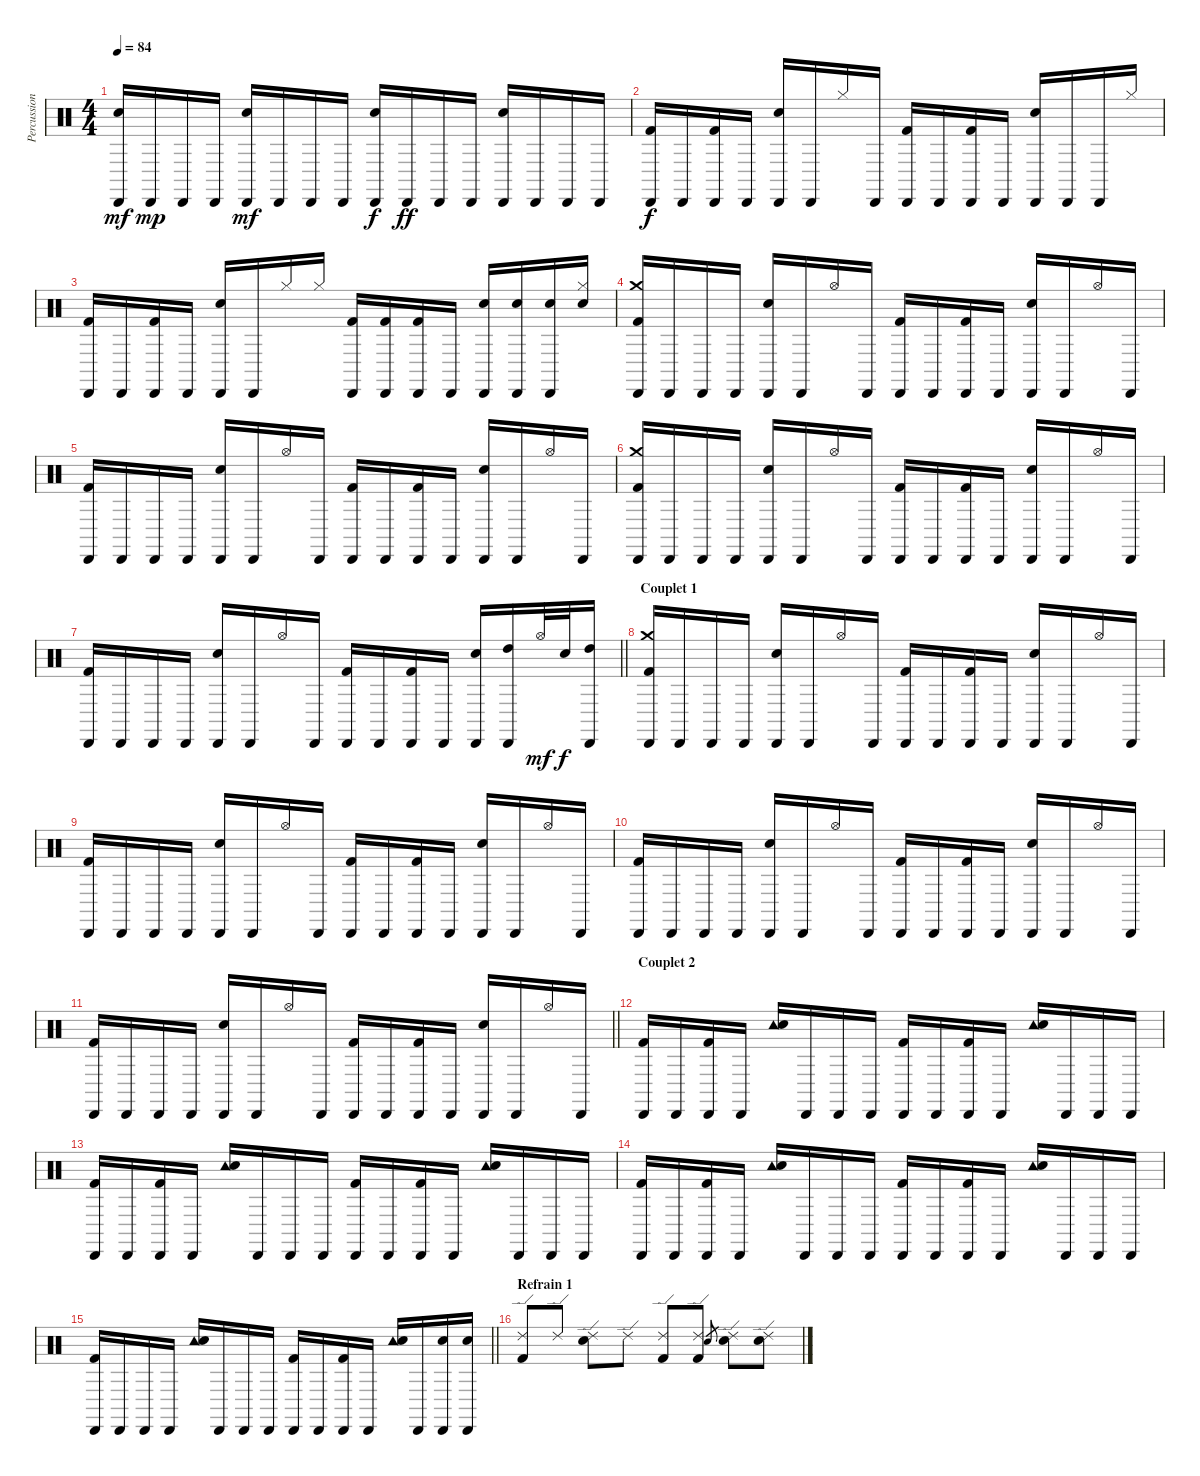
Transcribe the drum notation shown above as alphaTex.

\track ("Percussions" "Percussion") {instrument percussion}
\staff
\articulation defaults
\ts (4 4)
\tempo 84
\clef neutral
\ks c
("Cabasa (hit)" "Electric Snare (hit)").16{dy mf} "Cabasa (hit)".16{dy mp} "Cabasa (hit)".16 "Cabasa (hit)".16 ("Cabasa (hit)" "Electric Snare (hit)").16{dy mf} "Cabasa (hit)".16 "Cabasa (hit)".16 "Cabasa (hit)".16 ("Cabasa (hit)" "Electric Snare (hit)").16{dy f} "Cabasa (hit)".16{dy ff} "Cabasa (hit)".16 "Cabasa (hit)".16 ("Cabasa (hit)" "Electric Snare (hit)").16 "Cabasa (hit)".16 "Cabasa (hit)".16 "Cabasa (hit)".16 |
("Cabasa (hit)" "Kick (hit) 2").16{dy f} "Cabasa (hit)".16 ("Cabasa (hit)" "Kick (hit) 2").16 "Cabasa (hit)".16 ("Cabasa (hit)" "Electric Snare (hit)").16 "Cabasa (hit)".16 "Hi-Hat (closed)".16 "Cabasa (hit)".16 ("Cabasa (hit)" "Kick (hit) 2").16 "Cabasa (hit)".16 ("Cabasa (hit)" "Kick (hit) 2").16 "Cabasa (hit)".16 ("Cabasa (hit)" "Electric Snare (hit)").16 "Cabasa (hit)".16 "Cabasa (hit)".16 "Hi-Hat (closed)".16 |
("Cabasa (hit)" "Kick (hit) 2").16 "Cabasa (hit)".16 ("Cabasa (hit)" "Kick (hit) 2").16 "Cabasa (hit)".16 ("Cabasa (hit)" "Electric Snare (hit)").16 "Cabasa (hit)".16 "Hi-Hat (closed)".16 "Hi-Hat (closed)".16 ("Cabasa (hit)" "Kick (hit) 2").16 ("Cabasa (hit)" "Kick (hit) 2").16 ("Cabasa (hit)" "Kick (hit) 2").16 "Cabasa (hit)".16 ("Cabasa (hit)" "Electric Snare (hit)").16 ("Cabasa (hit)" "Electric Snare (hit)").16 ("Cabasa (hit)" "Electric Snare (hit)").16 ("Hi-Hat (closed)" "Electric Snare (hit)").16 |
("Cabasa (hit)" "Crash medium (hit)" "Kick (hit) 2").16 "Cabasa (hit)".16 "Cabasa (hit)".16 "Cabasa (hit)".16 ("Cabasa (hit)" "Electric Snare (hit)").16 "Cabasa (hit)".16 "Hi-Hat (open)".16 "Cabasa (hit)".16 ("Cabasa (hit)" "Kick (hit) 2").16 "Cabasa (hit)".16 ("Cabasa (hit)" "Kick (hit) 2").16 "Cabasa (hit)".16 ("Cabasa (hit)" "Electric Snare (hit)").16 "Cabasa (hit)".16 "Hi-Hat (open)".16 "Cabasa (hit)".16 |
("Cabasa (hit)" "Kick (hit) 2").16 "Cabasa (hit)".16 "Cabasa (hit)".16 "Cabasa (hit)".16 ("Cabasa (hit)" "Electric Snare (hit)").16 "Cabasa (hit)".16 "Hi-Hat (open)".16 "Cabasa (hit)".16 ("Cabasa (hit)" "Kick (hit) 2").16 "Cabasa (hit)".16 ("Cabasa (hit)" "Kick (hit) 2").16 "Cabasa (hit)".16 ("Cabasa (hit)" "Electric Snare (hit)").16 "Cabasa (hit)".16 "Hi-Hat (open)".16 "Cabasa (hit)".16 |
("Cabasa (hit)" "Crash medium (hit)" "Kick (hit) 2").16 "Cabasa (hit)".16 "Cabasa (hit)".16 "Cabasa (hit)".16 ("Cabasa (hit)" "Electric Snare (hit)").16 "Cabasa (hit)".16 "Hi-Hat (open)".16 "Cabasa (hit)".16 ("Cabasa (hit)" "Kick (hit) 2").16 "Cabasa (hit)".16 ("Cabasa (hit)" "Kick (hit) 2").16 "Cabasa (hit)".16 ("Cabasa (hit)" "Electric Snare (hit)").16 "Cabasa (hit)".16 "Hi-Hat (open)".16 "Cabasa (hit)".16 |
\barLineRight lightlight
("Cabasa (hit)" "Kick (hit) 2").16 "Cabasa (hit)".16 "Cabasa (hit)".16 "Cabasa (hit)".16 ("Cabasa (hit)" "Electric Snare (hit)").16 "Cabasa (hit)".16 "Hi-Hat (open)".16 "Cabasa (hit)".16 ("Cabasa (hit)" "Kick (hit) 2").16 "Cabasa (hit)".16 ("Cabasa (hit)" "Kick (hit) 2").16 "Cabasa (hit)".16 ("Cabasa (hit)" "Electric Snare (hit)").16 ("Cabasa (hit)" "High Tom (hit)").16 "Hi-Hat (open)".32{dy mf} "Electric Snare (hit)".32{dy f} ("Cabasa (hit)" "High Tom (hit)").16 |
\section ("" "Couplet 1")
("Cabasa (hit)" "Crash medium (hit)" "Kick (hit) 2").16 "Cabasa (hit)".16 "Cabasa (hit)".16 "Cabasa (hit)".16 ("Cabasa (hit)" "Electric Snare (hit)").16 "Cabasa (hit)".16 "Hi-Hat (open)".16 "Cabasa (hit)".16 ("Cabasa (hit)" "Kick (hit) 2").16 "Cabasa (hit)".16 ("Cabasa (hit)" "Kick (hit) 2").16 "Cabasa (hit)".16 ("Cabasa (hit)" "Electric Snare (hit)").16 "Cabasa (hit)".16 "Hi-Hat (open)".16 "Cabasa (hit)".16 |
("Cabasa (hit)" "Kick (hit) 2").16 "Cabasa (hit)".16 "Cabasa (hit)".16 "Cabasa (hit)".16 ("Cabasa (hit)" "Electric Snare (hit)").16 "Cabasa (hit)".16 "Hi-Hat (open)".16 "Cabasa (hit)".16 ("Cabasa (hit)" "Kick (hit) 2").16 "Cabasa (hit)".16 ("Cabasa (hit)" "Kick (hit) 2").16 "Cabasa (hit)".16 ("Cabasa (hit)" "Electric Snare (hit)").16 "Cabasa (hit)".16 "Hi-Hat (open)".16 "Cabasa (hit)".16 |
("Cabasa (hit)" "Kick (hit) 2").16 "Cabasa (hit)".16 "Cabasa (hit)".16 "Cabasa (hit)".16 ("Cabasa (hit)" "Electric Snare (hit)").16 "Cabasa (hit)".16 "Hi-Hat (open)".16 "Cabasa (hit)".16 ("Cabasa (hit)" "Kick (hit) 2").16 "Cabasa (hit)".16 ("Cabasa (hit)" "Kick (hit) 2").16 "Cabasa (hit)".16 ("Cabasa (hit)" "Electric Snare (hit)").16 "Cabasa (hit)".16 "Hi-Hat (open)".16 "Cabasa (hit)".16 |
\barLineRight lightlight
("Cabasa (hit)" "Kick (hit) 2").16 "Cabasa (hit)".16 "Cabasa (hit)".16 "Cabasa (hit)".16 ("Cabasa (hit)" "Electric Snare (hit)").16 "Cabasa (hit)".16 "Hi-Hat (open)".16 "Cabasa (hit)".16 ("Cabasa (hit)" "Kick (hit) 2").16 "Cabasa (hit)".16 ("Cabasa (hit)" "Kick (hit) 2").16 "Cabasa (hit)".16 ("Cabasa (hit)" "Electric Snare (hit)").16 "Cabasa (hit)".16 "Hi-Hat (open)".16 "Cabasa (hit)".16 |
\section ("" "Couplet 2")
("Cabasa (hit)" "Kick (hit) 2").16 "Cabasa (hit)".16 ("Cabasa (hit)" "Kick (hit) 2").16 "Cabasa (hit)".16 ("Tambourine (hit)" "Electric Snare (hit)").16 "Cabasa (hit)".16 "Cabasa (hit)".16 "Cabasa (hit)".16 ("Cabasa (hit)" "Kick (hit) 2").16 "Cabasa (hit)".16 ("Cabasa (hit)" "Kick (hit) 2").16 "Cabasa (hit)".16 ("Tambourine (hit)" "Electric Snare (hit)").16 "Cabasa (hit)".16 "Cabasa (hit)".16 "Cabasa (hit)".16 |
("Cabasa (hit)" "Kick (hit) 2").16 "Cabasa (hit)".16 ("Cabasa (hit)" "Kick (hit) 2").16 "Cabasa (hit)".16 ("Tambourine (hit)" "Electric Snare (hit)").16 "Cabasa (hit)".16 "Cabasa (hit)".16 "Cabasa (hit)".16 ("Cabasa (hit)" "Kick (hit) 2").16 "Cabasa (hit)".16 ("Cabasa (hit)" "Kick (hit) 2").16 "Cabasa (hit)".16 ("Tambourine (hit)" "Electric Snare (hit)").16 "Cabasa (hit)".16 "Cabasa (hit)".16 "Cabasa (hit)".16 |
("Cabasa (hit)" "Kick (hit) 2").16 "Cabasa (hit)".16 ("Cabasa (hit)" "Kick (hit) 2").16 "Cabasa (hit)".16 ("Tambourine (hit)" "Electric Snare (hit)").16 "Cabasa (hit)".16 "Cabasa (hit)".16 "Cabasa (hit)".16 ("Cabasa (hit)" "Kick (hit) 2").16 "Cabasa (hit)".16 ("Cabasa (hit)" "Kick (hit) 2").16 "Cabasa (hit)".16 ("Tambourine (hit)" "Electric Snare (hit)").16 "Cabasa (hit)".16 "Cabasa (hit)".16 "Cabasa (hit)".16 |
\barLineRight lightlight
("Cabasa (hit)" "Kick (hit) 2").16 "Cabasa (hit)".16 "Cabasa (hit)".16 "Cabasa (hit)".16 ("Tambourine (hit)" "Electric Snare (hit)").16 "Cabasa (hit)".16 "Cabasa (hit)".16 "Cabasa (hit)".16 ("Cabasa (hit)" "Kick (hit) 2").16 "Cabasa (hit)".16 ("Cabasa (hit)" "Kick (hit) 2").16 "Cabasa (hit)".16 ("Tambourine (hit)" "Electric Snare (hit)").16 "Cabasa (hit)".16 ("Cabasa (hit)" "Electric Snare (hit)").16 ("Cabasa (hit)" "Electric Snare (hit)").16 |
\section ("" "Refrain 1")
("Ride (edge) 2" "Kick (hit) 2").8 "Ride (edge) 2".8 ("Ride (edge) 2" "Electric Snare (hit)").8 "Ride (edge) 2".8 ("Ride (edge) 2" "Kick (hit) 2").8 ("Ride (edge) 2" "Kick (hit) 2").8 "Electric Snare (hit)".8{gr} ("Ride (edge) 2" "Electric Snare (hit)").8 ("Ride (edge) 2" "Electric Snare (hit)").8
